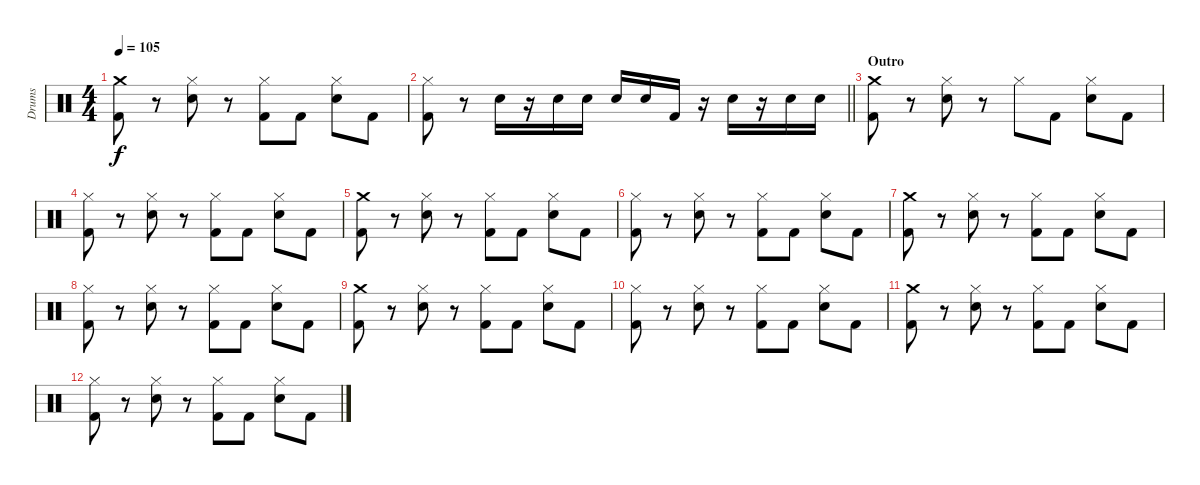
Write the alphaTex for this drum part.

\track ("Drums" "Drums") {instrument percussion}
\staff {score}
\articulation defaults
\ts (4 4)
\tempo 105
\clef neutral
\ks c
("Crash medium (hit)" "Kick (hit) 2").8{dy f} r.8 ("Hi-Hat (closed)" "Snare (hit) 2").8 r.8 ("Hi-Hat (closed)" "Kick (hit) 2").8 "Kick (hit) 2".8 ("Hi-Hat (closed)" "Snare (hit) 2").8 "Kick (hit) 2".8 |
\barLineRight lightlight
("Hi-Hat (closed)" "Kick (hit) 2").8 r.8 "Snare (hit) 2".16 r.16 "Snare (hit) 2".16 "Snare (hit) 2".16 "Snare (hit) 2".16 "Snare (hit) 2".16 "Kick (hit) 2".16 r.16 "Snare (hit) 2".16 r.16 "Snare (hit) 2".16 "Snare (hit) 2".16 |
\section ("" "Outro")
("Crash medium (hit)" "Kick (hit) 2").8 r.8 ("Hi-Hat (closed)" "Snare (hit) 2").8 r.8 "Hi-Hat (closed)".8 "Kick (hit) 2".8 ("Hi-Hat (closed)" "Snare (hit) 2").8 "Kick (hit) 2".8 |
("Hi-Hat (closed)" "Kick (hit) 2").8 r.8 ("Hi-Hat (closed)" "Snare (hit) 2").8 r.8 ("Hi-Hat (closed)" "Kick (hit) 2").8 "Kick (hit) 2".8 ("Hi-Hat (closed)" "Snare (hit) 2").8 "Kick (hit) 2".8 |
("Crash medium (hit)" "Kick (hit) 2").8 r.8 ("Hi-Hat (closed)" "Snare (hit) 2").8 r.8 ("Hi-Hat (closed)" "Kick (hit) 2").8 "Kick (hit) 2".8 ("Hi-Hat (closed)" "Snare (hit) 2").8 "Kick (hit) 2".8 |
("Hi-Hat (closed)" "Kick (hit) 2").8 r.8 ("Hi-Hat (closed)" "Snare (hit) 2").8 r.8 ("Hi-Hat (closed)" "Kick (hit) 2").8 "Kick (hit) 2".8 ("Hi-Hat (closed)" "Snare (hit) 2").8 "Kick (hit) 2".8 |
("Crash medium (hit)" "Kick (hit) 2").8 r.8 ("Hi-Hat (closed)" "Snare (hit) 2").8 r.8 ("Hi-Hat (closed)" "Kick (hit) 2").8 "Kick (hit) 2".8 ("Hi-Hat (closed)" "Snare (hit) 2").8 "Kick (hit) 2".8 |
("Hi-Hat (closed)" "Kick (hit) 2").8 r.8 ("Hi-Hat (closed)" "Snare (hit) 2").8 r.8 ("Hi-Hat (closed)" "Kick (hit) 2").8 "Kick (hit) 2".8 ("Hi-Hat (closed)" "Snare (hit) 2").8 "Kick (hit) 2".8 |
("Crash medium (hit)" "Kick (hit) 2").8 r.8 ("Hi-Hat (closed)" "Snare (hit) 2").8 r.8 ("Hi-Hat (closed)" "Kick (hit) 2").8 "Kick (hit) 2".8 ("Hi-Hat (closed)" "Snare (hit) 2").8 "Kick (hit) 2".8 |
("Hi-Hat (closed)" "Kick (hit) 2").8 r.8 ("Hi-Hat (closed)" "Snare (hit) 2").8 r.8 ("Hi-Hat (closed)" "Kick (hit) 2").8 "Kick (hit) 2".8 ("Hi-Hat (closed)" "Snare (hit) 2").8 "Kick (hit) 2".8 |
("Crash medium (hit)" "Kick (hit) 2").8 r.8 ("Hi-Hat (closed)" "Snare (hit) 2").8 r.8 ("Hi-Hat (closed)" "Kick (hit) 2").8 "Kick (hit) 2".8 ("Hi-Hat (closed)" "Snare (hit) 2").8 "Kick (hit) 2".8 |
("Hi-Hat (closed)" "Kick (hit) 2").8 r.8 ("Hi-Hat (closed)" "Snare (hit) 2").8 r.8 ("Hi-Hat (closed)" "Kick (hit) 2").8 "Kick (hit) 2".8 ("Hi-Hat (closed)" "Snare (hit) 2").8 "Kick (hit) 2".8
